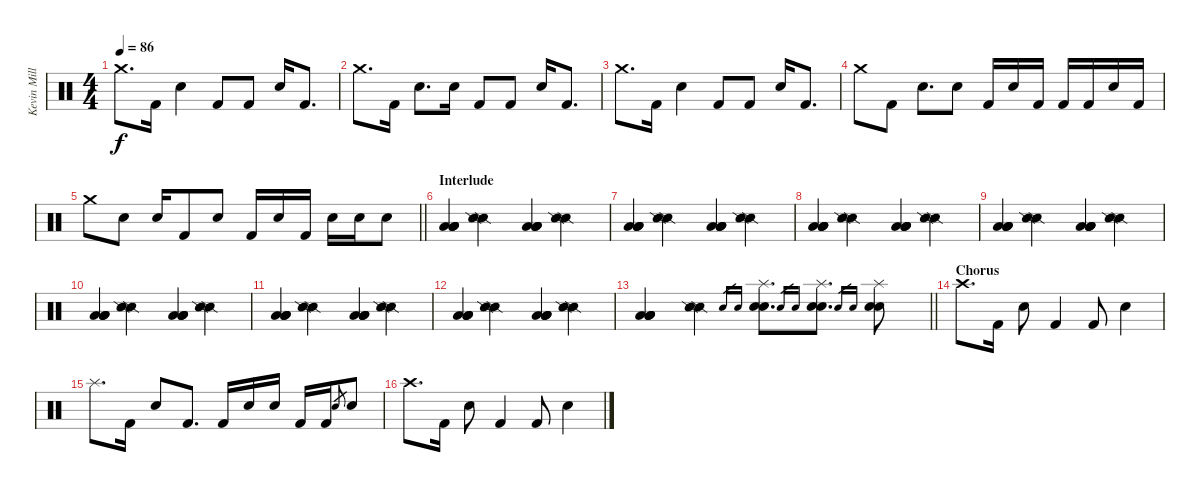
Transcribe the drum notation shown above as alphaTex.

\track ("Kevin Miller (Drums)" "Kevin Mill") {instrument percussion}
\staff {score}
\articulation defaults
\ts (4 4)
\tempo 86
\clef neutral
\ks c "Crash medium (hit)".8{d dy f} "Kick (hit) 2".16 "Electric Snare (hit)".4 "Kick (hit) 2".8 "Kick (hit) 2".8 "Electric Snare (hit)".16 "Kick (hit) 2".8{d}
|
"Crash medium (hit)".8{d} "Kick (hit) 2".16 "Electric Snare (hit)".8{d} "Electric Snare (hit)".16 "Kick (hit) 2".8 "Kick (hit) 2".8 "Electric Snare (hit)".16 "Kick (hit) 2".8{d} |
"Crash medium (hit)".8{d} "Kick (hit) 2".16 "Electric Snare (hit)".4 "Kick (hit) 2".8 "Kick (hit) 2".8 "Electric Snare (hit)".16 "Kick (hit) 2".8{d} |
"Crash medium (hit)".8 "Kick (hit) 2".8 "Electric Snare (hit)".8{d} "Electric Snare (hit)".8 "Kick (hit) 2".16 "Electric Snare (hit)".16 "Kick (hit) 2".16 "Kick (hit) 2".16 "Kick (hit) 2".16 "Electric Snare (hit)".16 "Kick (hit) 2".16 |
\barLineRight lightlight "Crash medium (hit)".8 "Electric Snare (hit)".8 "Electric Snare (hit)".16 "Kick (hit) 2".8 "Electric Snare (hit)".8 "Kick (hit) 2".16 "Electric Snare (hit)".16 "Kick (hit) 2".16 "Electric Snare (hit)".16 "Electric Snare (hit)".16 "Electric Snare (hit)".8
|
\section ("" "Interlude")
("Low Floor Tom (hit)" "Low Floor Tom (hit)" "Low Floor Tom (hit)" "Low Floor Tom (hit)").4 ("Snare (side stick) 2" "Snare (side stick) 2").4 ("Low Floor Tom (hit)" "Low Floor Tom (hit)" "Low Floor Tom (hit)" "Low Floor Tom (hit)").4 ("Snare (side stick) 2" "Snare (side stick) 2").4 |
("Low Floor Tom (hit)" "Low Floor Tom (hit)" "Low Floor Tom (hit)" "Low Floor Tom (hit)").4 ("Snare (side stick) 2" "Snare (side stick) 2").4 ("Low Floor Tom (hit)" "Low Floor Tom (hit)" "Low Floor Tom (hit)" "Low Floor Tom (hit)").4 ("Snare (side stick) 2" "Snare (side stick) 2").4 |
("Low Floor Tom (hit)" "Low Floor Tom (hit)" "Low Floor Tom (hit)" "Low Floor Tom (hit)").4 ("Snare (side stick) 2" "Snare (side stick) 2").4 ("Low Floor Tom (hit)" "Low Floor Tom (hit)" "Low Floor Tom (hit)" "Low Floor Tom (hit)").4 ("Snare (side stick) 2" "Snare (side stick) 2").4 |
("Low Floor Tom (hit)" "Low Floor Tom (hit)" "Low Floor Tom (hit)" "Low Floor Tom (hit)").4 ("Snare (side stick) 2" "Snare (side stick) 2").4 ("Low Floor Tom (hit)" "Low Floor Tom (hit)" "Low Floor Tom (hit)" "Low Floor Tom (hit)").4 ("Snare (side stick) 2" "Snare (side stick) 2").4 |
("Low Floor Tom (hit)" "Low Floor Tom (hit)" "Low Floor Tom (hit)" "Low Floor Tom (hit)").4 ("Snare (side stick) 2" "Snare (side stick) 2").4 ("Low Floor Tom (hit)" "Low Floor Tom (hit)" "Low Floor Tom (hit)" "Low Floor Tom (hit)").4 ("Snare (side stick) 2" "Snare (side stick) 2").4 |
("Low Floor Tom (hit)" "Low Floor Tom (hit)" "Low Floor Tom (hit)" "Low Floor Tom (hit)").4 ("Snare (side stick) 2" "Snare (side stick) 2").4 ("Low Floor Tom (hit)" "Low Floor Tom (hit)" "Low Floor Tom (hit)" "Low Floor Tom (hit)").4 ("Snare (side stick) 2" "Snare (side stick) 2").4 |
("Low Floor Tom (hit)" "Low Floor Tom (hit)" "Low Floor Tom (hit)" "Low Floor Tom (hit)").4 ("Snare (side stick) 2" "Snare (side stick) 2").4 ("Low Floor Tom (hit)" "Low Floor Tom (hit)" "Low Floor Tom (hit)" "Low Floor Tom (hit)").4 ("Snare (side stick) 2" "Snare (side stick) 2").4 |
\barLineRight lightlight
("Low Floor Tom (hit)" "Low Floor Tom (hit)" "Low Floor Tom (hit)" "Low Floor Tom (hit)").4 ("Snare (side stick) 2" "Snare (side stick) 2").4 "Electric Snare (hit)".16{gr} "Electric Snare (hit)".16{gr} ("Splash (hit)" "Electric Snare (hit)" "Electric Snare (hit)").8{d} "Electric Snare (hit)".16{gr} "Electric Snare (hit)".16{gr} ("Splash (hit)" "Electric Snare (hit)" "Electric Snare (hit)").8{d} "Electric Snare (hit)".16{gr} "Electric Snare (hit)".16{gr} ("Splash (hit)" "Electric Snare (hit)" "Electric Snare (hit)").8 |
\section ("" "Chorus")
"Crash high (hit)".8{d} "Kick (hit) 2".16 "Electric Snare (hit)".8 "Kick (hit) 2".4 "Kick (hit) 2".8 "Electric Snare (hit)".4 |
"Splash (hit)".8{d} "Kick (hit) 2".16 "Electric Snare (hit)".8 "Kick (hit) 2".8{d} "Kick (hit) 2".16 "Electric Snare (hit)".16 "Electric Snare (hit)".16 "Kick (hit) 2".16 "Kick (hit) 2".16 "Electric Snare (hit)".8{gr} "Electric Snare (hit)".8 |
"Crash high (hit)".8{d} "Kick (hit) 2".16 "Electric Snare (hit)".8 "Kick (hit) 2".4 "Kick (hit) 2".8 "Electric Snare (hit)".4
